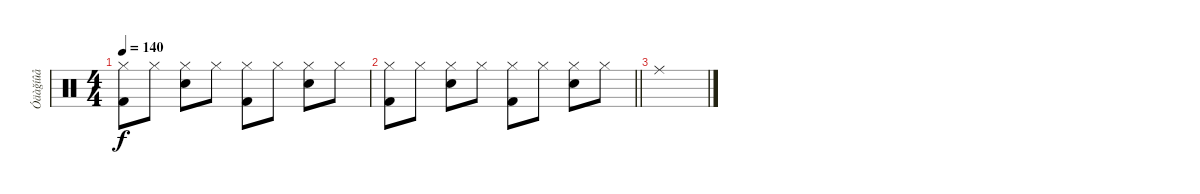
\track ("Óäàğíûå" "Óäàğíûå") {instrument percussion}
\staff {score}
\articulation defaults
\ts (4 4)
\tempo 140
\clef neutral
\ks c
("Hi-Hat (closed)" "Kick (hit) 2").8{dy f} "Hi-Hat (closed)".8 ("Hi-Hat (closed)" "Snare (hit) 2").8 "Hi-Hat (closed)".8 ("Hi-Hat (closed)" "Kick (hit) 2").8 "Hi-Hat (closed)".8 ("Hi-Hat (closed)" "Snare (hit) 2").8 "Hi-Hat (closed)".8 |
\barLineRight lightlight
("Hi-Hat (closed)" "Kick (hit) 2").8 "Hi-Hat (closed)".8 ("Hi-Hat (closed)" "Snare (hit) 2").8 "Hi-Hat (closed)".8 ("Hi-Hat (closed)" "Kick (hit) 2").8 "Hi-Hat (closed)".8 ("Hi-Hat (closed)" "Snare (hit) 2").8 "Hi-Hat (closed)".8 |
"Ride (middle)".1
